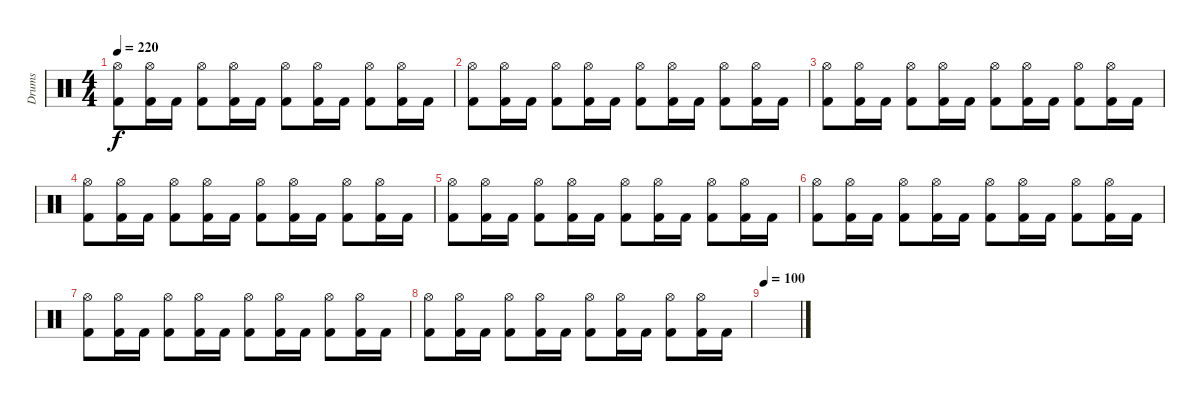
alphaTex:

\track ("Drums" "Drums") {instrument percussion}
\staff {score}
\articulation defaults
\ts (4 4)
\tempo 220
\clef neutral
\ks c
("Hi-Hat (open)" "Kick (hit) 2").8{dy f} ("Hi-Hat (open)" "Kick (hit) 2").16 "Kick (hit) 2".16 ("Hi-Hat (open)" "Kick (hit) 2").8 ("Hi-Hat (open)" "Kick (hit) 2").16 "Kick (hit) 2".16 ("Hi-Hat (open)" "Kick (hit) 2").8 ("Hi-Hat (open)" "Kick (hit) 2").16 "Kick (hit) 2".16 ("Hi-Hat (open)" "Kick (hit) 2").8 ("Hi-Hat (open)" "Kick (hit) 2").16 "Kick (hit) 2".16 |
("Hi-Hat (open)" "Kick (hit) 2").8 ("Hi-Hat (open)" "Kick (hit) 2").16 "Kick (hit) 2".16 ("Hi-Hat (open)" "Kick (hit) 2").8 ("Hi-Hat (open)" "Kick (hit) 2").16 "Kick (hit) 2".16 ("Hi-Hat (open)" "Kick (hit) 2").8 ("Hi-Hat (open)" "Kick (hit) 2").16 "Kick (hit) 2".16 ("Hi-Hat (open)" "Kick (hit) 2").8 ("Hi-Hat (open)" "Kick (hit) 2").16 "Kick (hit) 2".16 |
("Hi-Hat (open)" "Kick (hit) 2").8 ("Hi-Hat (open)" "Kick (hit) 2").16 "Kick (hit) 2".16 ("Hi-Hat (open)" "Kick (hit) 2").8 ("Hi-Hat (open)" "Kick (hit) 2").16 "Kick (hit) 2".16 ("Hi-Hat (open)" "Kick (hit) 2").8 ("Hi-Hat (open)" "Kick (hit) 2").16 "Kick (hit) 2".16 ("Hi-Hat (open)" "Kick (hit) 2").8 ("Hi-Hat (open)" "Kick (hit) 2").16 "Kick (hit) 2".16 |
("Hi-Hat (open)" "Kick (hit) 2").8 ("Hi-Hat (open)" "Kick (hit) 2").16 "Kick (hit) 2".16 ("Hi-Hat (open)" "Kick (hit) 2").8 ("Hi-Hat (open)" "Kick (hit) 2").16 "Kick (hit) 2".16 ("Hi-Hat (open)" "Kick (hit) 2").8 ("Hi-Hat (open)" "Kick (hit) 2").16 "Kick (hit) 2".16 ("Hi-Hat (open)" "Kick (hit) 2").8 ("Hi-Hat (open)" "Kick (hit) 2").16 "Kick (hit) 2".16 |
("Hi-Hat (open)" "Kick (hit) 2").8 ("Hi-Hat (open)" "Kick (hit) 2").16 "Kick (hit) 2".16 ("Hi-Hat (open)" "Kick (hit) 2").8 ("Hi-Hat (open)" "Kick (hit) 2").16 "Kick (hit) 2".16 ("Hi-Hat (open)" "Kick (hit) 2").8 ("Hi-Hat (open)" "Kick (hit) 2").16 "Kick (hit) 2".16 ("Hi-Hat (open)" "Kick (hit) 2").8 ("Hi-Hat (open)" "Kick (hit) 2").16 "Kick (hit) 2".16 |
("Hi-Hat (open)" "Kick (hit) 2").8 ("Hi-Hat (open)" "Kick (hit) 2").16 "Kick (hit) 2".16 ("Hi-Hat (open)" "Kick (hit) 2").8 ("Hi-Hat (open)" "Kick (hit) 2").16 "Kick (hit) 2".16 ("Hi-Hat (open)" "Kick (hit) 2").8 ("Hi-Hat (open)" "Kick (hit) 2").16 "Kick (hit) 2".16 ("Hi-Hat (open)" "Kick (hit) 2").8 ("Hi-Hat (open)" "Kick (hit) 2").16 "Kick (hit) 2".16 |
("Hi-Hat (open)" "Kick (hit) 2").8 ("Hi-Hat (open)" "Kick (hit) 2").16 "Kick (hit) 2".16 ("Hi-Hat (open)" "Kick (hit) 2").8 ("Hi-Hat (open)" "Kick (hit) 2").16 "Kick (hit) 2".16 ("Hi-Hat (open)" "Kick (hit) 2").8 ("Hi-Hat (open)" "Kick (hit) 2").16 "Kick (hit) 2".16 ("Hi-Hat (open)" "Kick (hit) 2").8 ("Hi-Hat (open)" "Kick (hit) 2").16 "Kick (hit) 2".16 |
("Hi-Hat (open)" "Kick (hit) 2").8 ("Hi-Hat (open)" "Kick (hit) 2").16 "Kick (hit) 2".16 ("Hi-Hat (open)" "Kick (hit) 2").8 ("Hi-Hat (open)" "Kick (hit) 2").16 "Kick (hit) 2".16 ("Hi-Hat (open)" "Kick (hit) 2").8 ("Hi-Hat (open)" "Kick (hit) 2").16 "Kick (hit) 2".16 ("Hi-Hat (open)" "Kick (hit) 2").8 ("Hi-Hat (open)" "Kick (hit) 2").16 "Kick (hit) 2".16 |
\tempo 100
